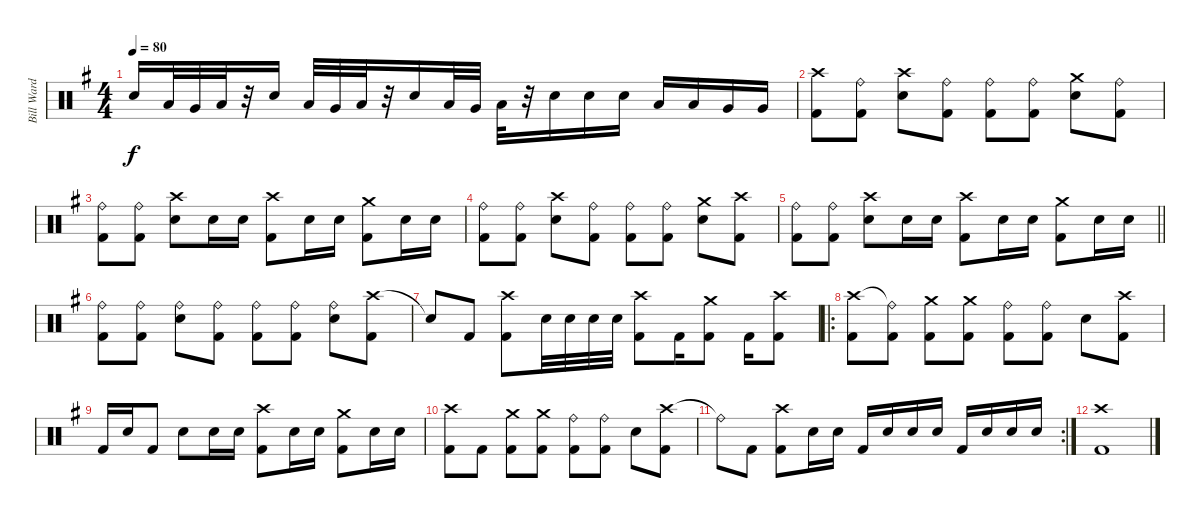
\track ("Bill Ward" "Bill Ward") {instrument percussion}
\staff {score}
\articulation defaults
\ts (4 4)
\tempo 80
\clef neutral
\ks g "Snare (hit) 2".16{dy f} "Low Tom (hit)".32 "Very Low Tom (hit)".32 "Low Floor Tom (hit)".32
r.32 "Snare (hit) 2".16 "Low Tom (hit)".32 "Very Low Tom (hit)".32 "Low Floor Tom (hit)".32 r.32 "Snare (hit) 2".16 "Low Tom (hit)".32 "Very Low Tom (hit)".32 "Low Floor Tom (hit)".32 r.32 "Snare (hit) 2".16 "Snare (hit) 2".16 "Snare (hit) 2".16 "Low Tom (hit)".16 "Low Tom (hit)".16 "Very Low Tom (hit)".16 "Very Low Tom (hit)".16 |
("Crash high (hit)" "Kick (hit) 2").8 ("Ride (bell)" "Kick (hit) 2").8 ("Crash high (hit)" "Snare (hit) 2").8 ("Ride (bell)" "Kick (hit) 2").8 ("Ride (bell)" "Kick (hit) 2").8 ("Ride (bell)" "Kick (hit) 2").8 ("Crash medium (hit)" "Snare (hit) 2").8 ("Ride (bell)" "Kick (hit) 2").8 |
("Ride (bell)" "Kick (hit) 2").8 ("Ride (bell)" "Kick (hit) 2").8 ("Crash high (hit)" "Snare (hit) 2").8 "Snare (hit) 2".16 "Snare (hit) 2".16 ("Crash high (hit)" "Kick (hit) 2").8 "Snare (hit) 2".16 "Snare (hit) 2".16 ("Crash medium (hit)" "Kick (hit) 2").8 "Snare (hit) 2".16 "Snare (hit) 2".16 |
("Ride (bell)" "Kick (hit) 2").8 ("Ride (bell)" "Kick (hit) 2").8 ("Crash high (hit)" "Snare (hit) 2").8 ("Ride (bell)" "Kick (hit) 2").8 ("Ride (bell)" "Kick (hit) 2").8 ("Ride (bell)" "Kick (hit) 2").8 ("Crash medium (hit)" "Snare (hit) 2").8 ("Crash high (hit)" "Kick (hit) 2").8 |
\barLineRight lightlight
("Ride (bell)" "Kick (hit) 2").8 ("Ride (bell)" "Kick (hit) 2").8 ("Crash high (hit)" "Snare (hit) 2").8 "Snare (hit) 2".16 "Snare (hit) 2".16 ("Crash high (hit)" "Kick (hit) 2").8 "Snare (hit) 2".16 "Snare (hit) 2".16 ("Crash medium (hit)" "Kick (hit) 2").8 "Snare (hit) 2".16 "Snare (hit) 2".16 |
("Ride (bell)" "Kick (hit) 2").8 ("Ride (bell)" "Kick (hit) 2").8 ("Ride (bell)" "Snare (hit) 2").8 ("Ride (bell)" "Kick (hit) 2").8 ("Ride (bell)" "Kick (hit) 2").8 ("Ride (bell)" "Kick (hit) 2").8 ("Ride (bell)" "Snare (hit) 2").8 ("Crash high (hit)" "Kick (hit) 2").8 |
"Snare (hit)"{t}.8 "Kick (hit) 2".8 ("Crash high (hit)" "Kick (hit) 2").8 "Snare (hit) 2".32 "Snare (hit) 2".32 "Snare (hit) 2".32 "Snare (hit) 2".32 ("Crash high (hit)" "Kick (hit) 2").8 "Kick (hit) 2".16 ("Crash medium (hit)" "Kick (hit) 2").8 "Kick (hit) 2".16 ("Crash high (hit)" "Kick (hit) 2").8 |
\ro
("Crash high (hit)" "Kick (hit) 2").8 ("Ride (bell)"{t} "Kick (hit) 2").8 ("Crash medium (hit)" "Kick (hit) 2").8 ("Crash medium (hit)" "Kick (hit) 2").8 ("Ride (bell)" "Kick (hit) 2").8 ("Ride (bell)" "Kick (hit) 2").8 "Snare (hit) 2".8 ("Crash high (hit)" "Kick (hit) 2").8 |
"Kick (hit) 2".16 "Snare (hit) 2".16 "Kick (hit) 2".8 "Snare (hit) 2".8 "Snare (hit) 2".16 "Snare (hit) 2".16 ("Crash high (hit)" "Kick (hit) 2").8 "Snare (hit) 2".16 "Snare (hit) 2".16 ("Crash medium (hit)" "Kick (hit) 2").8 "Snare (hit) 2".16 "Snare (hit) 2".16 |
("Crash high (hit)" "Kick (hit) 2").8 "Kick (hit) 2".8 ("Crash medium (hit)" "Kick (hit) 2").8 ("Crash medium (hit)" "Kick (hit) 2").8 ("Ride (bell)" "Kick (hit) 2").8 ("Ride (bell)" "Kick (hit) 2").8 "Snare (hit) 2".8 ("Crash high (hit)" "Kick (hit) 2").8 |
\rc 2 "Ride (bell)"{t}.8 "Kick (hit) 2".8
("Crash high (hit)" "Kick (hit) 2").8 "Snare (hit) 2".16 "Snare (hit) 2".16 "Kick (hit) 2".16 "Snare (hit) 2".16 "Snare (hit) 2".16 "Snare (hit) 2".16 "Kick (hit) 2".16 "Snare (hit) 2".16 "Snare (hit) 2".16 "Snare (hit) 2".16 |
("Crash high (hit)" "Kick (hit) 2").1
